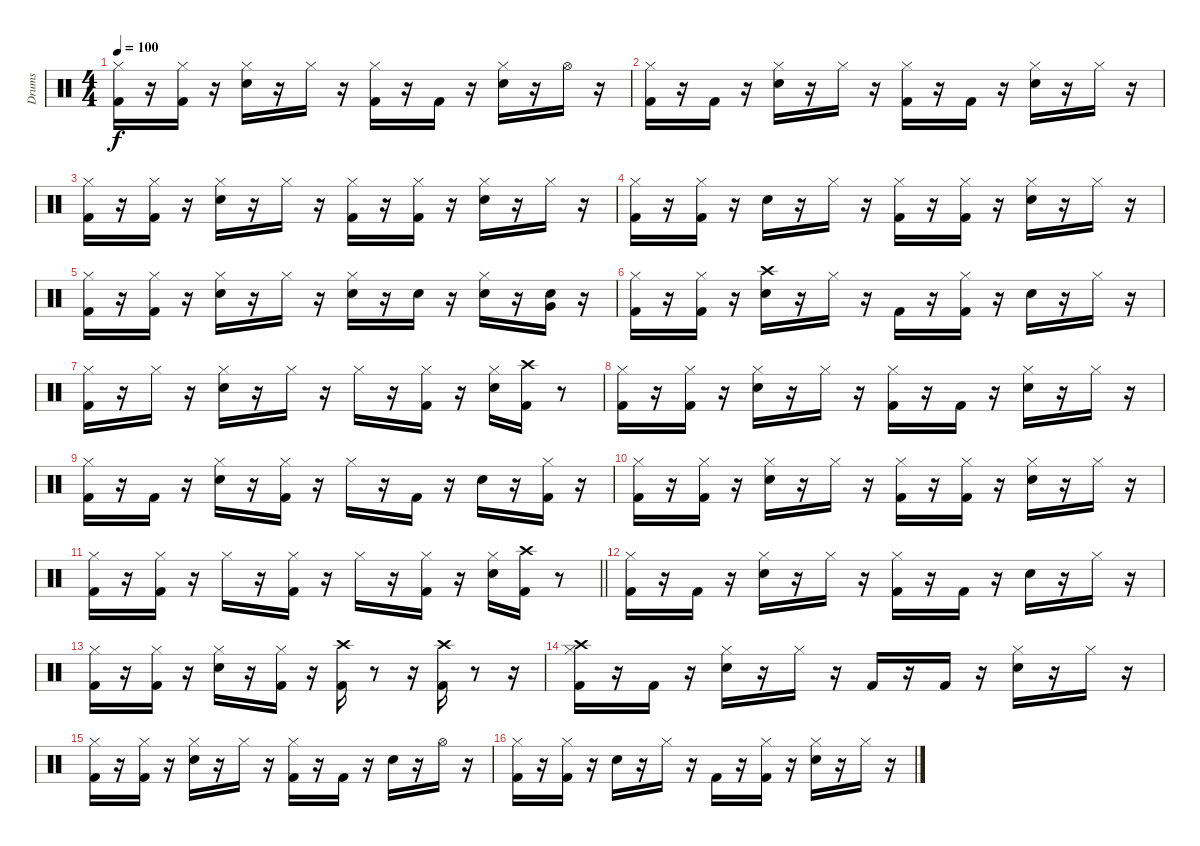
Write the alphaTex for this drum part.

\track ("Drums" "Drums") {instrument percussion}
\staff {score}
\articulation defaults
\ts (4 4)
\tempo 100
\clef neutral
\ks c
("Kick (hit) 2" "Hi-Hat (closed)").16{dy f} r.16 ("Kick (hit) 2" "Hi-Hat (closed)").16 r.16 ("Snare (hit) 2" "Hi-Hat (closed)").16 r.16 "Hi-Hat (closed)".16 r.16 ("Kick (hit) 2" "Hi-Hat (closed)").16 r.16 "Kick (hit) 2".16 r.16 ("Snare (hit) 2" "Hi-Hat (closed)").16 r.16 "Hi-Hat (open)".16 r.16 |
("Kick (hit) 2" "Hi-Hat (closed)").16 r.16 "Kick (hit) 2".16 r.16 ("Snare (hit) 2" "Hi-Hat (closed)").16 r.16 "Hi-Hat (closed)".16 r.16 ("Kick (hit) 2" "Hi-Hat (closed)").16 r.16 "Kick (hit) 2".16 r.16 ("Snare (hit) 2" "Hi-Hat (closed)").16 r.16 "Hi-Hat (closed)".16 r.16 |
("Kick (hit) 2" "Hi-Hat (closed)").16 r.16 ("Kick (hit) 2" "Hi-Hat (closed)").16 r.16 ("Snare (hit) 2" "Hi-Hat (closed)").16 r.16 "Hi-Hat (closed)".16 r.16 ("Kick (hit) 2" "Hi-Hat (closed)").16 r.16 ("Kick (hit) 2" "Hi-Hat (closed)").16 r.16 ("Snare (hit) 2" "Hi-Hat (closed)").16 r.16 "Hi-Hat (closed)".16 r.16 |
("Kick (hit) 2" "Hi-Hat (closed)").16 r.16 ("Kick (hit) 2" "Hi-Hat (closed)").16 r.16 "Snare (hit) 2".16 r.16 "Hi-Hat (closed)".16 r.16 ("Kick (hit) 2" "Hi-Hat (closed)").16 r.16 ("Kick (hit) 2" "Hi-Hat (closed)").16 r.16 ("Snare (hit) 2" "Hi-Hat (closed)").16 r.16 "Hi-Hat (closed)".16 r.16 |
("Kick (hit) 2" "Hi-Hat (closed)").16 r.16 ("Kick (hit) 2" "Hi-Hat (closed)").16 r.16 ("Snare (hit) 2" "Hi-Hat (closed)").16 r.16 "Hi-Hat (closed)".16 r.16 ("Snare (hit) 2" "Hi-Hat (closed)").16 r.16 "Snare (hit) 2".16 r.16 ("Snare (hit) 2" "Hi-Hat (closed)").16 r.16 ("Snare (hit) 2" "Very Low Tom (hit)").16 r.16 |
("Kick (hit) 2" "Hi-Hat (closed)").16 r.16 ("Kick (hit) 2" "Hi-Hat (closed)").16 r.16 ("Snare (hit) 2" "Crash high (hit)").16 r.16 "Hi-Hat (closed)".16 r.16 "Kick (hit) 2".16 r.16 ("Kick (hit) 2" "Hi-Hat (closed)").16 r.16 "Snare (hit) 2".16 r.16 "Hi-Hat (closed)".16 r.16 |
("Kick (hit) 2" "Hi-Hat (closed)").16 r.16 "Hi-Hat (closed)".16 r.16 ("Snare (hit) 2" "Hi-Hat (closed)").16 r.16 "Hi-Hat (closed)".16 r.16 "Hi-Hat (closed)".16 r.16 ("Kick (hit) 2" "Hi-Hat (closed)").16 r.16 ("Snare (hit) 2" "Hi-Hat (closed)").16 ("Kick (hit) 2" "Crash high (hit)").16 r.8 |
("Kick (hit) 2" "Hi-Hat (closed)").16 r.16 ("Kick (hit) 2" "Hi-Hat (closed)").16 r.16 ("Snare (hit) 2" "Hi-Hat (closed)").16 r.16 "Hi-Hat (closed)".16 r.16 ("Kick (hit) 2" "Hi-Hat (closed)").16 r.16 "Kick (hit) 2".16 r.16 ("Snare (hit) 2" "Hi-Hat (closed)").16 r.16 "Hi-Hat (closed)".16 r.16 |
("Kick (hit) 2" "Hi-Hat (closed)").16 r.16 "Kick (hit) 2".16 r.16 ("Snare (hit) 2" "Hi-Hat (closed)").16 r.16 ("Kick (hit) 2" "Hi-Hat (closed)").16 r.16 "Hi-Hat (closed)".16 r.16 "Kick (hit) 2".16 r.16 "Snare (hit) 2".16 r.16 ("Kick (hit) 2" "Hi-Hat (closed)").16 r.16 |
("Kick (hit) 2" "Hi-Hat (closed)").16 r.16 ("Kick (hit) 2" "Hi-Hat (closed)").16 r.16 ("Snare (hit) 2" "Hi-Hat (closed)").16 r.16 "Hi-Hat (closed)".16 r.16 ("Kick (hit) 2" "Hi-Hat (closed)").16 r.16 ("Kick (hit) 2" "Hi-Hat (closed)").16 r.16 ("Snare (hit) 2" "Hi-Hat (closed)").16 r.16 "Hi-Hat (closed)".16 r.16 |
\barLineRight lightlight
("Kick (hit) 2" "Hi-Hat (closed)").16 r.16 ("Kick (hit) 2" "Hi-Hat (closed)").16 r.16 "Hi-Hat (closed)".16 r.16 ("Kick (hit) 2" "Hi-Hat (closed)").16 r.16 "Hi-Hat (closed)".16 r.16 ("Kick (hit) 2" "Hi-Hat (closed)").16 r.16 ("Snare (hit) 2" "Hi-Hat (closed)").16 ("Kick (hit) 2" "Crash high (hit)").16 r.8 |
("Kick (hit) 2" "Hi-Hat (closed)").16 r.16 "Kick (hit) 2".16 r.16 ("Snare (hit) 2" "Hi-Hat (closed)").16 r.16 "Hi-Hat (closed)".16 r.16 ("Kick (hit) 2" "Hi-Hat (closed)").16 r.16 "Kick (hit) 2".16 r.16 "Snare (hit) 2".16 r.16 "Hi-Hat (closed)".16 r.16 |
("Kick (hit) 2" "Hi-Hat (closed)").16 r.16 ("Kick (hit) 2" "Hi-Hat (closed)").16 r.16 ("Snare (hit) 2" "Hi-Hat (closed)").16 r.16 ("Kick (hit) 2" "Hi-Hat (closed)").16 r.16 ("Kick (hit) 2" "Crash high (hit)").16 r.8 r.16 ("Kick (hit) 2" "Crash high (hit)").16 r.8 r.16 |
("Kick (hit) 2" "Hi-Hat (closed)" "Crash high (hit)").16 r.16 "Kick (hit) 2".16 r.16 ("Snare (hit) 2" "Hi-Hat (closed)").16 r.16 "Hi-Hat (closed)".16 r.16 "Kick (hit) 2".16 r.16 "Kick (hit) 2".16 r.16 ("Snare (hit) 2" "Hi-Hat (closed)").16 r.16 "Hi-Hat (closed)".16 r.16 |
("Kick (hit) 2" "Hi-Hat (closed)").16 r.16 ("Kick (hit) 2" "Hi-Hat (closed)").16 r.16 ("Snare (hit) 2" "Hi-Hat (closed)").16 r.16 "Hi-Hat (closed)".16 r.16 ("Kick (hit) 2" "Hi-Hat (closed)").16 r.16 "Kick (hit) 2".16 r.16 "Snare (hit) 2".16 r.16 "Hi-Hat (open)".16 r.16 |
("Kick (hit) 2" "Hi-Hat (closed)").16 r.16 ("Kick (hit) 2" "Hi-Hat (closed)").16 r.16 "Snare (hit) 2".16 r.16 "Hi-Hat (closed)".16 r.16 "Kick (hit) 2".16 r.16 ("Kick (hit) 2" "Hi-Hat (closed)").16 r.16 ("Snare (hit) 2" "Hi-Hat (closed)").16 r.16 "Hi-Hat (closed)".16 r.16
